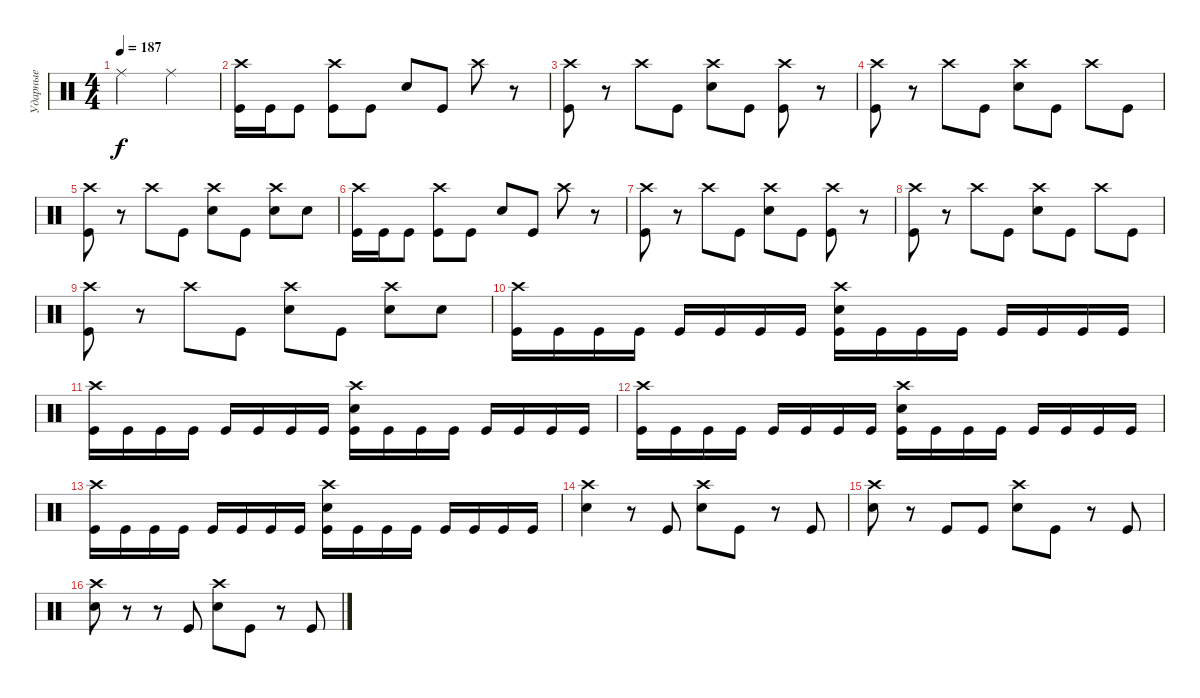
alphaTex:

\track ("Ударные" "Ударные") {instrument percussion}
\staff {score}
\articulation defaults
\ts (4 4)
\tempo 187
\clef neutral
\ks c "Ride (middle)".2{dy f} "Ride (middle)".2
|
("Crash high (hit)" "Kick (hit)").16 "Kick (hit)".16 "Kick (hit)".8 ("Crash high (hit)" "Kick (hit)").8 "Kick (hit)".8 "Electric Snare (hit)".8 "Kick (hit)".8 "Crash high (hit)".8 r.8 |
("Crash high (hit)" "Kick (hit)").8 r.8 "Crash high (hit)".8 "Kick (hit)".8 ("Crash high (hit)" "Electric Snare (hit)").8 "Kick (hit)".8 ("Crash high (hit)" "Kick (hit)").8 r.8 |
("Crash high (hit)" "Kick (hit)").8 r.8 "Crash high (hit)".8 "Kick (hit)".8 ("Crash high (hit)" "Electric Snare (hit)").8 "Kick (hit)".8 "Crash high (hit)".8 "Kick (hit)".8 |
("Crash high (hit)" "Kick (hit)").8 r.8 "Crash high (hit)".8 "Kick (hit)".8 ("Crash high (hit)" "Electric Snare (hit)").8 "Kick (hit)".8 ("Crash high (hit)" "Electric Snare (hit)").8 "Electric Snare (hit)".8 |
("Crash high (hit)" "Kick (hit)").16 "Kick (hit)".16 "Kick (hit)".8 ("Crash high (hit)" "Kick (hit)").8 "Kick (hit)".8 "Electric Snare (hit)".8 "Kick (hit)".8 "Crash high (hit)".8 r.8 |
("Crash high (hit)" "Kick (hit)").8 r.8 "Crash high (hit)".8 "Kick (hit)".8 ("Crash high (hit)" "Electric Snare (hit)").8 "Kick (hit)".8 ("Crash high (hit)" "Kick (hit)").8 r.8 |
("Crash high (hit)" "Kick (hit)").8 r.8 "Crash high (hit)".8 "Kick (hit)".8 ("Crash high (hit)" "Electric Snare (hit)").8 "Kick (hit)".8 "Crash high (hit)".8 "Kick (hit)".8 |
("Crash high (hit)" "Kick (hit)").8 r.8 "Crash high (hit)".8 "Kick (hit)".8 ("Crash high (hit)" "Electric Snare (hit)").8 "Kick (hit)".8 ("Crash high (hit)" "Electric Snare (hit)").8 "Electric Snare (hit)".8 |
("Crash high (hit)" "Kick (hit)").16 "Kick (hit)".16 "Kick (hit)".16 "Kick (hit)".16 "Kick (hit)".16 "Kick (hit)".16 "Kick (hit)".16 "Kick (hit)".16 ("Crash high (hit)" "Electric Snare (hit)" "Kick (hit)").16 "Kick (hit)".16 "Kick (hit)".16 "Kick (hit)".16 "Kick (hit)".16 "Kick (hit)".16 "Kick (hit)".16 "Kick (hit)".16 |
("Crash high (hit)" "Kick (hit)").16 "Kick (hit)".16 "Kick (hit)".16 "Kick (hit)".16 "Kick (hit)".16 "Kick (hit)".16 "Kick (hit)".16 "Kick (hit)".16 ("Crash high (hit)" "Electric Snare (hit)" "Kick (hit)").16 "Kick (hit)".16 "Kick (hit)".16 "Kick (hit)".16 "Kick (hit)".16 "Kick (hit)".16 "Kick (hit)".16 "Kick (hit)".16 |
("Crash high (hit)" "Kick (hit)").16 "Kick (hit)".16 "Kick (hit)".16 "Kick (hit)".16 "Kick (hit)".16 "Kick (hit)".16 "Kick (hit)".16 "Kick (hit)".16 ("Crash high (hit)" "Electric Snare (hit)" "Kick (hit)").16 "Kick (hit)".16 "Kick (hit)".16 "Kick (hit)".16 "Kick (hit)".16 "Kick (hit)".16 "Kick (hit)".16 "Kick (hit)".16 |
("Crash high (hit)" "Kick (hit)").16 "Kick (hit)".16 "Kick (hit)".16 "Kick (hit)".16 "Kick (hit)".16 "Kick (hit)".16 "Kick (hit)".16 "Kick (hit)".16 ("Crash high (hit)" "Electric Snare (hit)" "Kick (hit)").16 "Kick (hit)".16 "Kick (hit)".16 "Kick (hit)".16 "Kick (hit)".16 "Kick (hit)".16 "Kick (hit)".16 "Kick (hit)".16 |
("Electric Snare (hit)" "Crash high (hit)").4 r.8 "Kick (hit)".8 ("Crash high (hit)" "Electric Snare (hit)").8 "Kick (hit)".8 r.8 "Kick (hit)".8 |
("Crash high (hit)" "Electric Snare (hit)").8 r.8 "Kick (hit)".8 "Kick (hit)".8 ("Crash high (hit)" "Electric Snare (hit)").8 "Kick (hit)".8 r.8 "Kick (hit)".8 |
("Crash high (hit)" "Electric Snare (hit)").8 r.8 r.8 "Kick (hit)".8 ("Crash high (hit)" "Electric Snare (hit)").8 "Kick (hit)".8 r.8 "Kick (hit)".8
